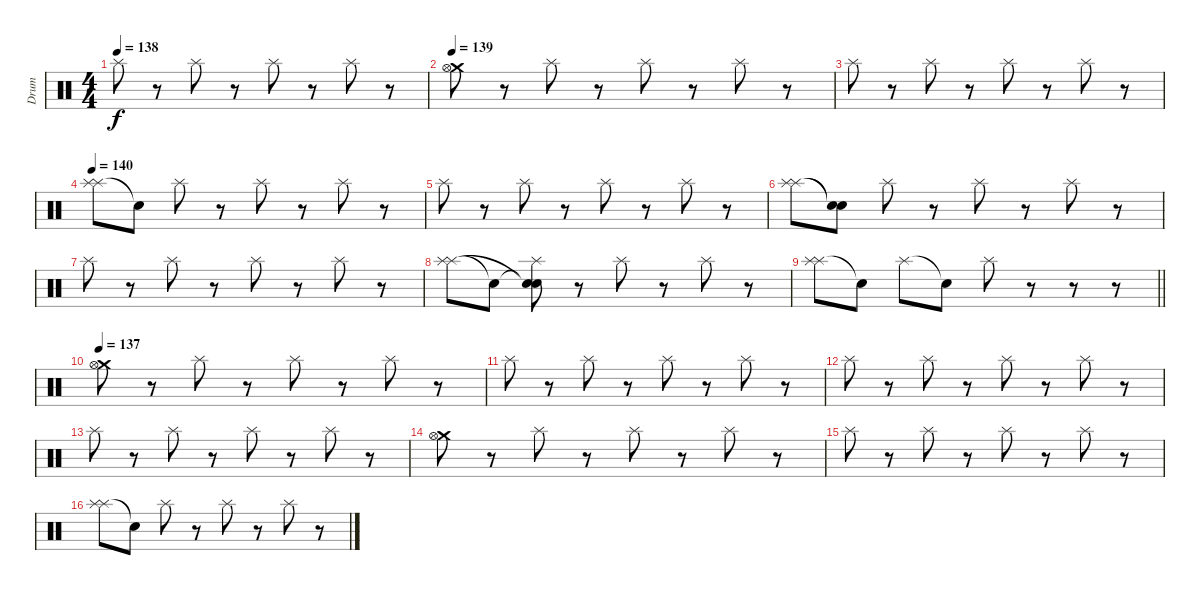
\track ("Drum" "Drum") {instrument percussion}
\staff {score}
\articulation defaults
\ts (4 4)
\tempo 138
\clef neutral
\ks c "Splash (hit)".8{dy f}
r.8 "Splash (hit)".8 r.8 "Splash (hit)".8 r.8 "Splash (hit)".8 r.8 |
\tempo 139
("Crash medium (hit)" "Hi-Hat (open)").8 r.8 "Splash (hit)".8 r.8 "Splash (hit)".8 r.8 "Splash (hit)".8 r.8 |
"Splash (hit)".8 r.8 "Splash (hit)".8 r.8 "Splash (hit)".8 r.8 "Splash (hit)".8 r.8 |
\tempo 140
("Splash (hit)" "Splash (hit)").8 "Snare (hit)"{t}.8 "Splash (hit)".8 r.8 "Splash (hit)".8 r.8 "Splash (hit)".8 r.8 |
"Splash (hit)".8 r.8 "Splash (hit)".8 r.8 "Splash (hit)".8 r.8 "Splash (hit)".8 r.8 |
("Splash (hit)" "Splash (hit)").8 ("Snare (hit)"{t} "Snare (hit)"{t}).8 "Splash (hit)".8 r.8 "Splash (hit)".8 r.8 "Splash (hit)".8 r.8 |
"Splash (hit)".8 r.8 "Splash (hit)".8 r.8 "Splash (hit)".8 r.8 "Splash (hit)".8 r.8 |
("Splash (hit)" "Splash (hit)").8 "Snare (hit)"{t}.8 ("Snare (hit)"{t} "Snare (hit)"{t} "Splash (hit)").8 r.8 "Splash (hit)".8 r.8 "Splash (hit)".8 r.8 |
\barLineRight lightlight
("Splash (hit)" "Splash (hit)").8 "Snare (hit)"{t}.8 "Splash (hit)".8 "Snare (hit)"{t}.8 "Splash (hit)".8 r.8 r.8 r.8 |
\tempo 137
("Crash medium (hit)" "Hi-Hat (open)").8 r.8 "Splash (hit)".8 r.8 "Splash (hit)".8 r.8 "Splash (hit)".8 r.8 |
"Splash (hit)".8 r.8 "Splash (hit)".8 r.8 "Splash (hit)".8 r.8 "Splash (hit)".8 r.8 |
"Splash (hit)".8 r.8 "Splash (hit)".8 r.8 "Splash (hit)".8 r.8 "Splash (hit)".8 r.8 |
"Splash (hit)".8 r.8 "Splash (hit)".8 r.8 "Splash (hit)".8 r.8 "Splash (hit)".8 r.8 |
("Crash medium (hit)" "Hi-Hat (open)").8 r.8 "Splash (hit)".8 r.8 "Splash (hit)".8 r.8 "Splash (hit)".8 r.8 |
"Splash (hit)".8 r.8 "Splash (hit)".8 r.8 "Splash (hit)".8 r.8 "Splash (hit)".8 r.8 |
("Splash (hit)" "Splash (hit)").8 "Snare (hit)"{t}.8 "Splash (hit)".8 r.8 "Splash (hit)".8 r.8 "Splash (hit)".8 r.8
